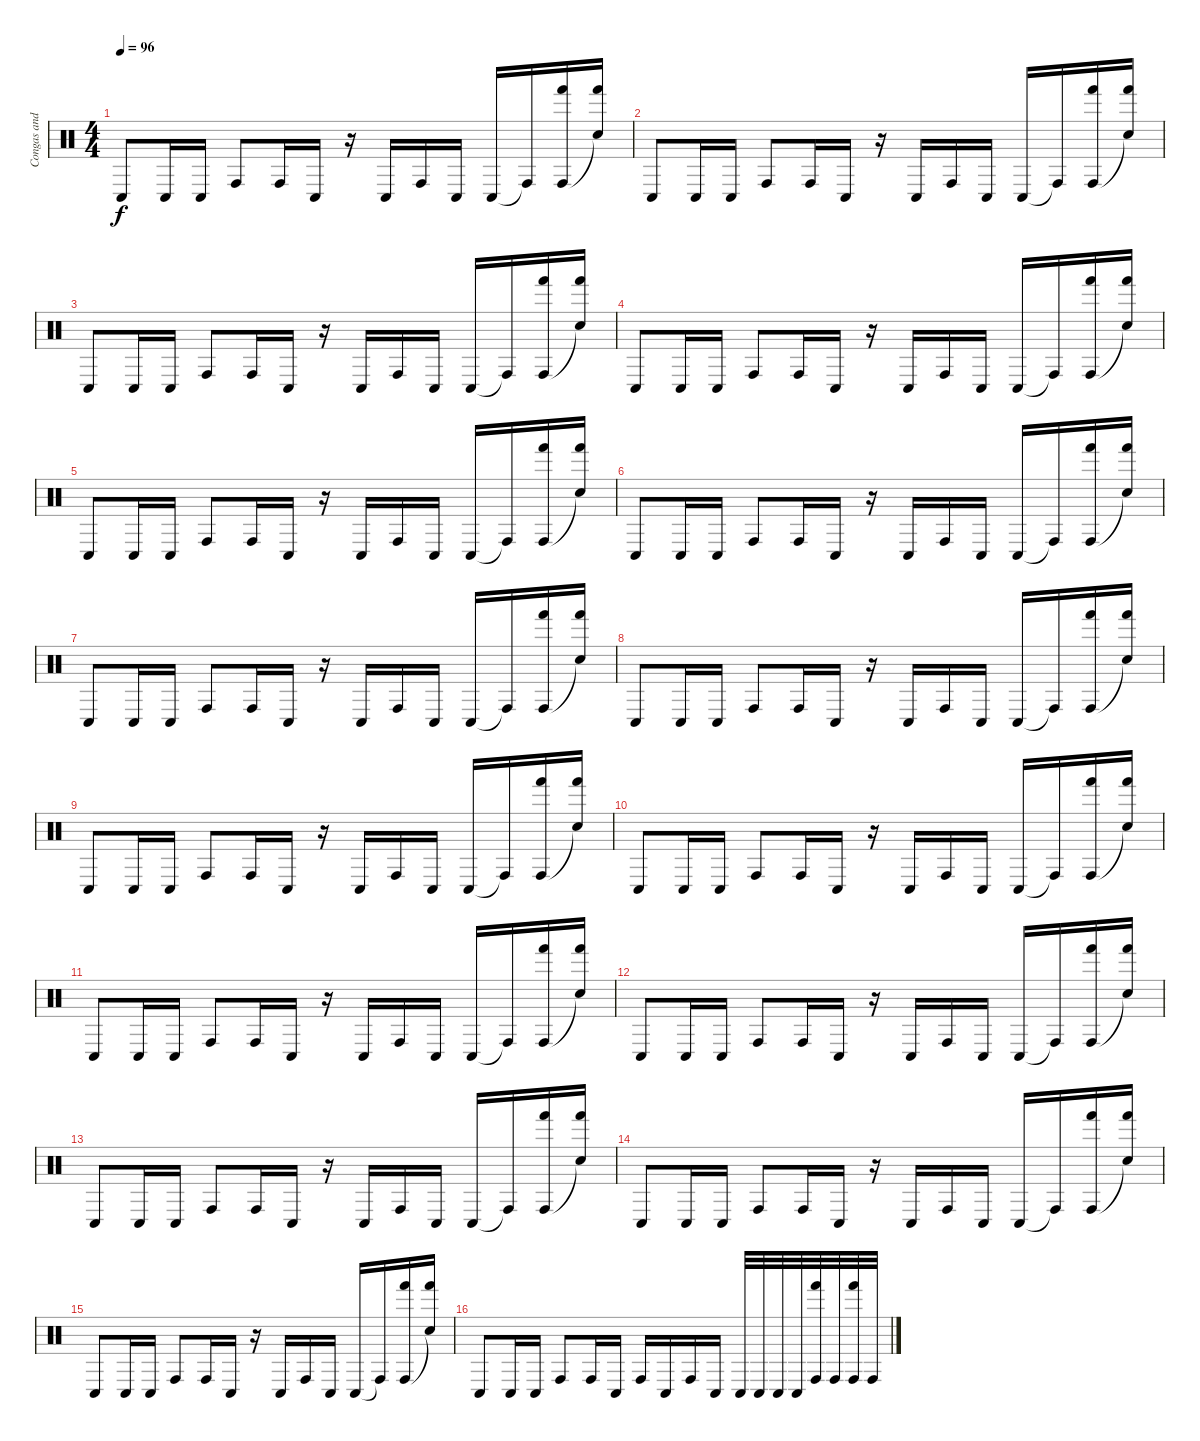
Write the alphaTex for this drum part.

\track ("Congas and Bongos" "Congas and") {instrument percussion}
\staff {score}
\articulation defaults
\ts (4 4)
\tempo 96
\clef neutral
\ks c "Conga low (hit)".8{dy f} "Conga low (hit)".16 "Conga low (hit)".16 "Conga high (hit)".8 "Conga high (hit)".16 "Conga low (hit)".16
r.16 "Conga low (hit)".16 "Conga high (hit)".16 "Conga low (hit)".16 "Conga low (hit)".16 "Conga high (hit)"{t}.16 ("Conga high (hit)" "Hand (hit)").16 ("Snare (hit)"{t} "Hand (hit)").16 |
"Conga low (hit)".8 "Conga low (hit)".16 "Conga low (hit)".16 "Conga high (hit)".8 "Conga high (hit)".16 "Conga low (hit)".16 r.16 "Conga low (hit)".16 "Conga high (hit)".16 "Conga low (hit)".16 "Conga low (hit)".16 "Conga high (hit)"{t}.16 ("Conga high (hit)" "Hand (hit)").16 ("Snare (hit)"{t} "Hand (hit)").16 |
"Conga low (hit)".8 "Conga low (hit)".16 "Conga low (hit)".16 "Conga high (hit)".8 "Conga high (hit)".16 "Conga low (hit)".16 r.16 "Conga low (hit)".16 "Conga high (hit)".16 "Conga low (hit)".16 "Conga low (hit)".16 "Conga high (hit)"{t}.16 ("Conga high (hit)" "Hand (hit)").16 ("Snare (hit)"{t} "Hand (hit)").16 |
"Conga low (hit)".8 "Conga low (hit)".16 "Conga low (hit)".16 "Conga high (hit)".8 "Conga high (hit)".16 "Conga low (hit)".16 r.16 "Conga low (hit)".16 "Conga high (hit)".16 "Conga low (hit)".16 "Conga low (hit)".16 "Conga high (hit)"{t}.16 ("Conga high (hit)" "Hand (hit)").16 ("Snare (hit)"{t} "Hand (hit)").16 |
"Conga low (hit)".8 "Conga low (hit)".16 "Conga low (hit)".16 "Conga high (hit)".8 "Conga high (hit)".16 "Conga low (hit)".16 r.16 "Conga low (hit)".16 "Conga high (hit)".16 "Conga low (hit)".16 "Conga low (hit)".16 "Conga high (hit)"{t}.16 ("Conga high (hit)" "Hand (hit)").16 ("Snare (hit)"{t} "Hand (hit)").16 |
"Conga low (hit)".8 "Conga low (hit)".16 "Conga low (hit)".16 "Conga high (hit)".8 "Conga high (hit)".16 "Conga low (hit)".16 r.16 "Conga low (hit)".16 "Conga high (hit)".16 "Conga low (hit)".16 "Conga low (hit)".16 "Conga high (hit)"{t}.16 ("Conga high (hit)" "Hand (hit)").16 ("Snare (hit)"{t} "Hand (hit)").16 |
"Conga low (hit)".8 "Conga low (hit)".16 "Conga low (hit)".16 "Conga high (hit)".8 "Conga high (hit)".16 "Conga low (hit)".16 r.16 "Conga low (hit)".16 "Conga high (hit)".16 "Conga low (hit)".16 "Conga low (hit)".16 "Conga high (hit)"{t}.16 ("Conga high (hit)" "Hand (hit)").16 ("Snare (hit)"{t} "Hand (hit)").16 |
"Conga low (hit)".8 "Conga low (hit)".16 "Conga low (hit)".16 "Conga high (hit)".8 "Conga high (hit)".16 "Conga low (hit)".16 r.16 "Conga low (hit)".16 "Conga high (hit)".16 "Conga low (hit)".16 "Conga low (hit)".16 "Conga high (hit)"{t}.16 ("Conga high (hit)" "Hand (hit)").16 ("Snare (hit)"{t} "Hand (hit)").16 |
"Conga low (hit)".8 "Conga low (hit)".16 "Conga low (hit)".16 "Conga high (hit)".8 "Conga high (hit)".16 "Conga low (hit)".16 r.16 "Conga low (hit)".16 "Conga high (hit)".16 "Conga low (hit)".16 "Conga low (hit)".16 "Conga high (hit)"{t}.16 ("Conga high (hit)" "Hand (hit)").16 ("Snare (hit)"{t} "Hand (hit)").16 |
"Conga low (hit)".8 "Conga low (hit)".16 "Conga low (hit)".16 "Conga high (hit)".8 "Conga high (hit)".16 "Conga low (hit)".16 r.16 "Conga low (hit)".16 "Conga high (hit)".16 "Conga low (hit)".16 "Conga low (hit)".16 "Conga high (hit)"{t}.16 ("Conga high (hit)" "Hand (hit)").16 ("Snare (hit)"{t} "Hand (hit)").16 |
"Conga low (hit)".8 "Conga low (hit)".16 "Conga low (hit)".16 "Conga high (hit)".8 "Conga high (hit)".16 "Conga low (hit)".16 r.16 "Conga low (hit)".16 "Conga high (hit)".16 "Conga low (hit)".16 "Conga low (hit)".16 "Conga high (hit)"{t}.16 ("Conga high (hit)" "Hand (hit)").16 ("Snare (hit)"{t} "Hand (hit)").16 |
"Conga low (hit)".8 "Conga low (hit)".16 "Conga low (hit)".16 "Conga high (hit)".8 "Conga high (hit)".16 "Conga low (hit)".16 r.16 "Conga low (hit)".16 "Conga high (hit)".16 "Conga low (hit)".16 "Conga low (hit)".16 "Conga high (hit)"{t}.16 ("Conga high (hit)" "Hand (hit)").16 ("Snare (hit)"{t} "Hand (hit)").16 |
"Conga low (hit)".8 "Conga low (hit)".16 "Conga low (hit)".16 "Conga high (hit)".8 "Conga high (hit)".16 "Conga low (hit)".16 r.16 "Conga low (hit)".16 "Conga high (hit)".16 "Conga low (hit)".16 "Conga low (hit)".16 "Conga high (hit)"{t}.16 ("Conga high (hit)" "Hand (hit)").16 ("Snare (hit)"{t} "Hand (hit)").16 |
"Conga low (hit)".8 "Conga low (hit)".16 "Conga low (hit)".16 "Conga high (hit)".8 "Conga high (hit)".16 "Conga low (hit)".16 r.16 "Conga low (hit)".16 "Conga high (hit)".16 "Conga low (hit)".16 "Conga low (hit)".16 "Conga high (hit)"{t}.16 ("Conga high (hit)" "Hand (hit)").16 ("Snare (hit)"{t} "Hand (hit)").16 |
"Conga low (hit)".8 "Conga low (hit)".16 "Conga low (hit)".16 "Conga high (hit)".8 "Conga high (hit)".16 "Conga low (hit)".16 r.16 "Conga low (hit)".16 "Conga high (hit)".16 "Conga low (hit)".16 "Conga low (hit)".16 "Conga high (hit)"{t}.16 ("Conga high (hit)" "Hand (hit)").16 ("Snare (hit)"{t} "Hand (hit)").16 |
"Conga low (hit)".8 "Conga low (hit)".16 "Conga low (hit)".16 "Conga high (hit)".8 "Conga high (hit)".16 "Conga low (hit)".16 "Conga high (hit)".16 "Conga low (hit)".16 "Conga high (hit)".16 "Conga low (hit)".16 "Conga low (hit)".32 "Conga low (hit)".32 "Conga low (hit)".32 "Conga low (hit)".32 ("Conga high (hit)" "Hand (hit)").32 "Conga high (hit)".32 ("Conga high (hit)" "Hand (hit)").32 "Conga high (hit)".32
